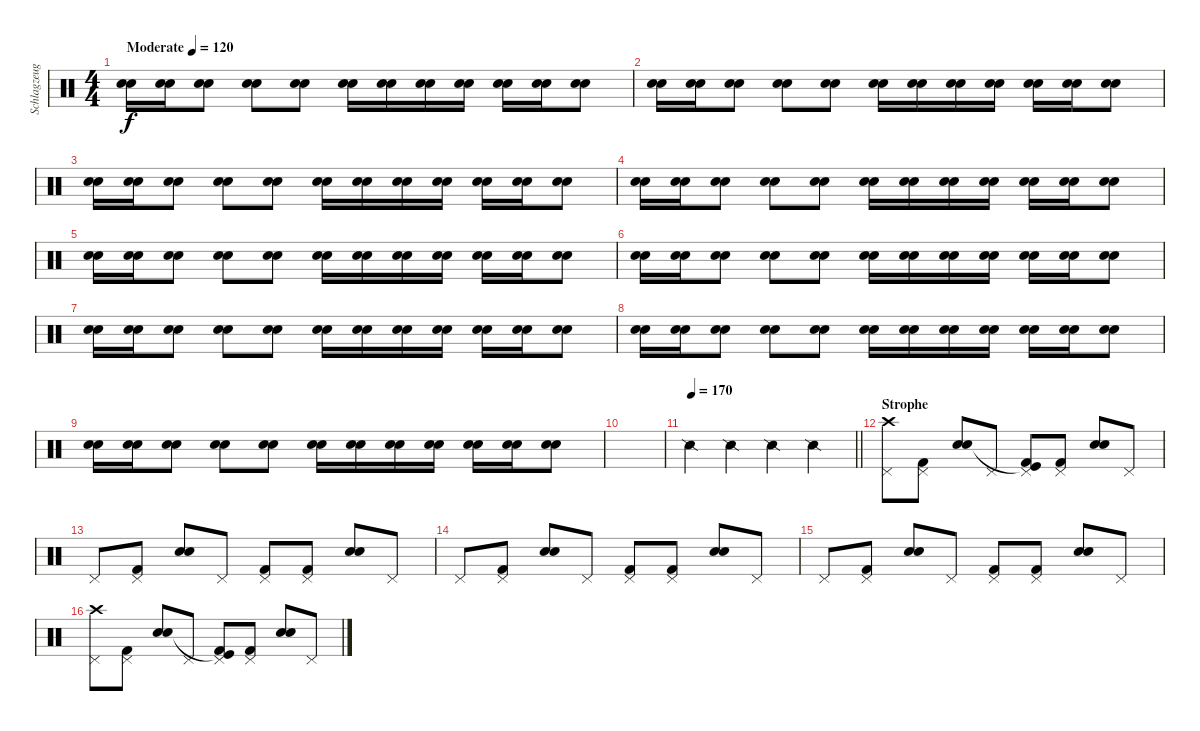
\track ("Schlagzeug" "Schlagzeug") {instrument percussion}
\staff {score}
\articulation defaults
\ts (4 4)
\tempo (120 "Moderate")
\clef neutral
\ks c
("Snare (hit) 2" "Snare (hit) 2").16{dy f} ("Snare (hit) 2" "Snare (hit) 2").16 ("Snare (hit) 2" "Snare (hit) 2").8 ("Snare (hit) 2" "Snare (hit) 2").8 ("Snare (hit) 2" "Snare (hit) 2").8 ("Snare (hit) 2" "Snare (hit) 2").16 ("Snare (hit) 2" "Snare (hit) 2").16 ("Snare (hit) 2" "Snare (hit) 2").16 ("Snare (hit) 2" "Snare (hit) 2").16 ("Snare (hit) 2" "Snare (hit) 2").16 ("Snare (hit) 2" "Snare (hit) 2").16 ("Snare (hit) 2" "Snare (hit) 2").8 |
("Snare (hit) 2" "Snare (hit) 2").16 ("Snare (hit) 2" "Snare (hit) 2").16 ("Snare (hit) 2" "Snare (hit) 2").8 ("Snare (hit) 2" "Snare (hit) 2").8 ("Snare (hit) 2" "Snare (hit) 2").8 ("Snare (hit) 2" "Snare (hit) 2").16 ("Snare (hit) 2" "Snare (hit) 2").16 ("Snare (hit) 2" "Snare (hit) 2").16 ("Snare (hit) 2" "Snare (hit) 2").16 ("Snare (hit) 2" "Snare (hit) 2").16 ("Snare (hit) 2" "Snare (hit) 2").16 ("Snare (hit) 2" "Snare (hit) 2").8 |
("Snare (hit) 2" "Snare (hit) 2").16 ("Snare (hit) 2" "Snare (hit) 2").16 ("Snare (hit) 2" "Snare (hit) 2").8 ("Snare (hit) 2" "Snare (hit) 2").8 ("Snare (hit) 2" "Snare (hit) 2").8 ("Snare (hit) 2" "Snare (hit) 2").16 ("Snare (hit) 2" "Snare (hit) 2").16 ("Snare (hit) 2" "Snare (hit) 2").16 ("Snare (hit) 2" "Snare (hit) 2").16 ("Snare (hit) 2" "Snare (hit) 2").16 ("Snare (hit) 2" "Snare (hit) 2").16 ("Snare (hit) 2" "Snare (hit) 2").8 |
("Snare (hit) 2" "Snare (hit) 2").16 ("Snare (hit) 2" "Snare (hit) 2").16 ("Snare (hit) 2" "Snare (hit) 2").8 ("Snare (hit) 2" "Snare (hit) 2").8 ("Snare (hit) 2" "Snare (hit) 2").8 ("Snare (hit) 2" "Snare (hit) 2").16 ("Snare (hit) 2" "Snare (hit) 2").16 ("Snare (hit) 2" "Snare (hit) 2").16 ("Snare (hit) 2" "Snare (hit) 2").16 ("Snare (hit) 2" "Snare (hit) 2").16 ("Snare (hit) 2" "Snare (hit) 2").16 ("Snare (hit) 2" "Snare (hit) 2").8 |
("Snare (hit) 2" "Snare (hit) 2").16 ("Snare (hit) 2" "Snare (hit) 2").16 ("Snare (hit) 2" "Snare (hit) 2").8 ("Snare (hit) 2" "Snare (hit) 2").8 ("Snare (hit) 2" "Snare (hit) 2").8 ("Snare (hit) 2" "Snare (hit) 2").16 ("Snare (hit) 2" "Snare (hit) 2").16 ("Snare (hit) 2" "Snare (hit) 2").16 ("Snare (hit) 2" "Snare (hit) 2").16 ("Snare (hit) 2" "Snare (hit) 2").16 ("Snare (hit) 2" "Snare (hit) 2").16 ("Snare (hit) 2" "Snare (hit) 2").8 |
("Snare (hit) 2" "Snare (hit) 2").16 ("Snare (hit) 2" "Snare (hit) 2").16 ("Snare (hit) 2" "Snare (hit) 2").8 ("Snare (hit) 2" "Snare (hit) 2").8 ("Snare (hit) 2" "Snare (hit) 2").8 ("Snare (hit) 2" "Snare (hit) 2").16 ("Snare (hit) 2" "Snare (hit) 2").16 ("Snare (hit) 2" "Snare (hit) 2").16 ("Snare (hit) 2" "Snare (hit) 2").16 ("Snare (hit) 2" "Snare (hit) 2").16 ("Snare (hit) 2" "Snare (hit) 2").16 ("Snare (hit) 2" "Snare (hit) 2").8 |
("Snare (hit) 2" "Snare (hit) 2").16 ("Snare (hit) 2" "Snare (hit) 2").16 ("Snare (hit) 2" "Snare (hit) 2").8 ("Snare (hit) 2" "Snare (hit) 2").8 ("Snare (hit) 2" "Snare (hit) 2").8 ("Snare (hit) 2" "Snare (hit) 2").16 ("Snare (hit) 2" "Snare (hit) 2").16 ("Snare (hit) 2" "Snare (hit) 2").16 ("Snare (hit) 2" "Snare (hit) 2").16 ("Snare (hit) 2" "Snare (hit) 2").16 ("Snare (hit) 2" "Snare (hit) 2").16 ("Snare (hit) 2" "Snare (hit) 2").8 |
("Snare (hit) 2" "Snare (hit) 2").16 ("Snare (hit) 2" "Snare (hit) 2").16 ("Snare (hit) 2" "Snare (hit) 2").8 ("Snare (hit) 2" "Snare (hit) 2").8 ("Snare (hit) 2" "Snare (hit) 2").8 ("Snare (hit) 2" "Snare (hit) 2").16 ("Snare (hit) 2" "Snare (hit) 2").16 ("Snare (hit) 2" "Snare (hit) 2").16 ("Snare (hit) 2" "Snare (hit) 2").16 ("Snare (hit) 2" "Snare (hit) 2").16 ("Snare (hit) 2" "Snare (hit) 2").16 ("Snare (hit) 2" "Snare (hit) 2").8 |
("Snare (hit) 2" "Snare (hit) 2").16 ("Snare (hit) 2" "Snare (hit) 2").16 ("Snare (hit) 2" "Snare (hit) 2").8 ("Snare (hit) 2" "Snare (hit) 2").8 ("Snare (hit) 2" "Snare (hit) 2").8 ("Snare (hit) 2" "Snare (hit) 2").16 ("Snare (hit) 2" "Snare (hit) 2").16 ("Snare (hit) 2" "Snare (hit) 2").16 ("Snare (hit) 2" "Snare (hit) 2").16 ("Snare (hit) 2" "Snare (hit) 2").16 ("Snare (hit) 2" "Snare (hit) 2").16 ("Snare (hit) 2" "Snare (hit) 2").8 |
|
\tempo 170
\barLineRight lightlight "Snare (side stick) 2".4 "Snare (side stick) 2".4 "Snare (side stick) 2".4 "Snare (side stick) 2".4
|
\section ("" "Strophe")
("Pedal Hi-Hat (hit)" "Crash high (hit)").8 ("Pedal Hi-Hat (hit)" "Kick (hit) 2").8 ("Snare (hit) 2" "Snare (hit) 2").8 "Pedal Hi-Hat (hit)".8 ("Pedal Hi-Hat (hit)" "Kick (hit)"{t} "Kick (hit) 2").8 ("Pedal Hi-Hat (hit)" "Kick (hit) 2").8 ("Snare (hit) 2" "Snare (hit) 2").8 "Pedal Hi-Hat (hit)".8 |
"Pedal Hi-Hat (hit)".8 ("Pedal Hi-Hat (hit)" "Kick (hit) 2").8 ("Snare (hit) 2" "Snare (hit) 2").8 "Pedal Hi-Hat (hit)".8 ("Pedal Hi-Hat (hit)" "Kick (hit) 2").8 ("Pedal Hi-Hat (hit)" "Kick (hit) 2").8 ("Snare (hit) 2" "Snare (hit) 2").8 "Pedal Hi-Hat (hit)".8 |
"Pedal Hi-Hat (hit)".8 ("Pedal Hi-Hat (hit)" "Kick (hit) 2").8 ("Snare (hit) 2" "Snare (hit) 2").8 "Pedal Hi-Hat (hit)".8 ("Pedal Hi-Hat (hit)" "Kick (hit) 2").8 ("Pedal Hi-Hat (hit)" "Kick (hit) 2").8 ("Snare (hit) 2" "Snare (hit) 2").8 "Pedal Hi-Hat (hit)".8 |
"Pedal Hi-Hat (hit)".8 ("Pedal Hi-Hat (hit)" "Kick (hit) 2").8 ("Snare (hit) 2" "Snare (hit) 2").8 "Pedal Hi-Hat (hit)".8 ("Pedal Hi-Hat (hit)" "Kick (hit) 2").8 ("Pedal Hi-Hat (hit)" "Kick (hit) 2").8 ("Snare (hit) 2" "Snare (hit) 2").8 "Pedal Hi-Hat (hit)".8 |
("Pedal Hi-Hat (hit)" "Crash high (hit)").8 ("Pedal Hi-Hat (hit)" "Kick (hit) 2").8 ("Snare (hit) 2" "Snare (hit) 2").8 "Pedal Hi-Hat (hit)".8 ("Pedal Hi-Hat (hit)" "Kick (hit)"{t} "Kick (hit) 2").8 ("Pedal Hi-Hat (hit)" "Kick (hit) 2").8 ("Snare (hit) 2" "Snare (hit) 2").8 "Pedal Hi-Hat (hit)".8
